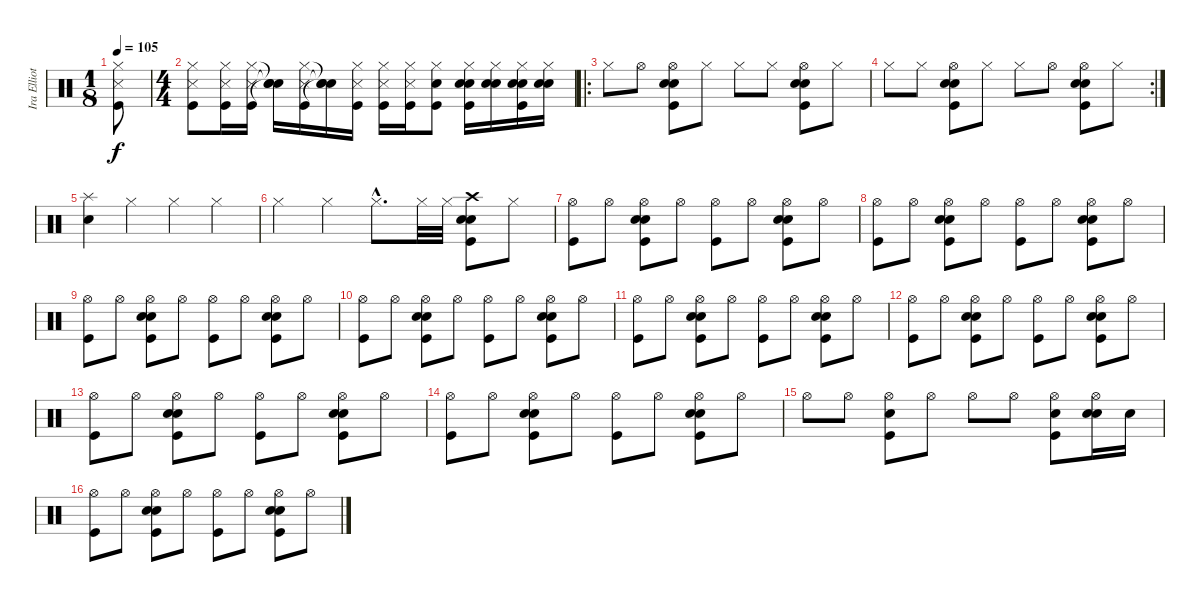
\track ("Ira Elliot" "Ira Elliot") {instrument percussion}
\staff {score}
\articulation defaults
\ts (1 8)
\tempo 105
\clef neutral
\ks c
("Hi-Hat (closed)" "Snare (side stick) 3" "Kick (hit)").8{dy f} |
\ts (4 4)
("Hi-Hat (closed)" "Snare (side stick) 3" "Kick (hit)").8 ("Hi-Hat (closed)" "Snare (side stick) 3" "Kick (hit)").16 ("Hi-Hat (closed)" "Snare (side stick) 3" "Kick (hit)").16 ("Snare (hit)"{t} "Snare (hit)"{t} "Snare (hit)"{t}).16 ("Hi-Hat (closed)" "Snare (side stick) 3" "Kick (hit)").16 ("Snare (hit)"{t} "Snare (hit)"{t} "Snare (hit)"{t}).16 ("Hi-Hat (closed)" "Snare (side stick) 3" "Kick (hit)").16 ("Hi-Hat (closed)" "Snare (side stick) 3" "Kick (hit)").16 ("Hi-Hat (closed)" "Snare (side stick) 3" "Kick (hit)").16 ("Hi-Hat (closed)" "Snare (hit) 2" "Kick (hit)").8 ("Snare (hit) 2" "Electric Snare (hit)" "Hi-Hat (closed)" "Kick (hit)").16 ("Snare (hit) 2" "Electric Snare (hit)" "Hi-Hat (closed)").16 ("Snare (hit) 2" "Electric Snare (hit)" "Hi-Hat (closed)" "Kick (hit)").16 ("Snare (hit) 2" "Electric Snare (hit)" "Hi-Hat (closed)").16 |
\ro "Hi-Hat (closed)".8 "Hi-Hat (open)".8
("Electric Snare (hit)" "Hi-Hat (open)" "Snare (hit) 2" "Kick (hit)").8 "Hi-Hat (closed)".8 "Hi-Hat (closed)".8 "Hi-Hat (closed)".8 ("Electric Snare (hit)" "Hi-Hat (open)" "Snare (hit) 2" "Kick (hit)").8 "Hi-Hat (closed)".8 |
\rc 2 "Hi-Hat (closed)".8 "Hi-Hat (closed)".8
("Electric Snare (hit)" "Snare (hit) 2" "Hi-Hat (open)" "Kick (hit)").8 "Hi-Hat (closed)".8 "Hi-Hat (closed)".8 "Hi-Hat (open)".8 ("Electric Snare (hit)" "Snare (hit) 2" "Hi-Hat (open)" "Kick (hit)").8 "Hi-Hat (closed)".8 |
("Splash (hit)" "Electric Snare (hit)").4 "Hi-Hat (closed)".4 "Hi-Hat (closed)".4 "Hi-Hat (closed)".4 |
"Hi-Hat (closed)".4 "Hi-Hat (closed)".4 "Hi-Hat (closed)"{hac}.8{d} "Hi-Hat (closed)".32 "Hi-Hat (closed)".32 ("Electric Snare (hit)" "Snare (hit) 2" "Crash high (hit)" "Kick (hit)").8 "Hi-Hat (closed)".8 |
("Hi-Hat (open)" "Kick (hit)").8 "Hi-Hat (open)".8 ("Electric Snare (hit)" "Hi-Hat (open)" "Snare (hit) 2" "Kick (hit)").8 "Hi-Hat (open)".8 ("Hi-Hat (open)" "Kick (hit)").8 "Hi-Hat (open)".8 ("Electric Snare (hit)" "Hi-Hat (open)" "Snare (hit) 2" "Kick (hit)").8 "Hi-Hat (open)".8 |
("Hi-Hat (open)" "Kick (hit)").8 "Hi-Hat (open)".8 ("Electric Snare (hit)" "Hi-Hat (open)" "Snare (hit) 2" "Kick (hit)").8 "Hi-Hat (open)".8 ("Hi-Hat (open)" "Kick (hit)").8 "Hi-Hat (open)".8 ("Electric Snare (hit)" "Hi-Hat (open)" "Snare (hit) 2" "Kick (hit)").8 "Hi-Hat (open)".8 |
("Hi-Hat (open)" "Kick (hit)").8 "Hi-Hat (open)".8 ("Electric Snare (hit)" "Hi-Hat (open)" "Snare (hit) 2" "Kick (hit)").8 "Hi-Hat (open)".8 ("Hi-Hat (open)" "Kick (hit)").8 "Hi-Hat (open)".8 ("Electric Snare (hit)" "Hi-Hat (open)" "Snare (hit) 2" "Kick (hit)").8 "Hi-Hat (open)".8 |
("Hi-Hat (open)" "Kick (hit)").8 "Hi-Hat (open)".8 ("Electric Snare (hit)" "Hi-Hat (open)" "Snare (hit) 2" "Kick (hit)").8 "Hi-Hat (open)".8 ("Hi-Hat (open)" "Kick (hit)").8 "Hi-Hat (open)".8 ("Electric Snare (hit)" "Hi-Hat (open)" "Snare (hit) 2" "Kick (hit)").8 "Hi-Hat (open)".8 |
("Hi-Hat (open)" "Kick (hit)").8 "Hi-Hat (open)".8 ("Electric Snare (hit)" "Hi-Hat (open)" "Snare (hit) 2" "Kick (hit)").8 "Hi-Hat (open)".8 ("Hi-Hat (open)" "Kick (hit)").8 "Hi-Hat (open)".8 ("Electric Snare (hit)" "Hi-Hat (open)" "Snare (hit) 2" "Kick (hit)").8 "Hi-Hat (open)".8 |
("Hi-Hat (open)" "Kick (hit)").8 "Hi-Hat (open)".8 ("Electric Snare (hit)" "Hi-Hat (open)" "Snare (hit) 2" "Kick (hit)").8 "Hi-Hat (open)".8 ("Hi-Hat (open)" "Kick (hit)").8 "Hi-Hat (open)".8 ("Electric Snare (hit)" "Hi-Hat (open)" "Snare (hit) 2" "Kick (hit)").8 "Hi-Hat (open)".8 |
("Hi-Hat (open)" "Kick (hit)").8 "Hi-Hat (open)".8 ("Electric Snare (hit)" "Hi-Hat (open)" "Snare (hit) 2" "Kick (hit)").8 "Hi-Hat (open)".8 ("Hi-Hat (open)" "Kick (hit)").8 "Hi-Hat (open)".8 ("Electric Snare (hit)" "Hi-Hat (open)" "Snare (hit) 2" "Kick (hit)").8 "Hi-Hat (open)".8 |
("Hi-Hat (open)" "Kick (hit)").8 "Hi-Hat (open)".8 ("Electric Snare (hit)" "Hi-Hat (open)" "Snare (hit) 2" "Kick (hit)").8 "Hi-Hat (open)".8 ("Hi-Hat (open)" "Kick (hit)").8 "Hi-Hat (open)".8 ("Electric Snare (hit)" "Hi-Hat (open)" "Snare (hit) 2" "Kick (hit)").8 "Hi-Hat (open)".8 |
"Hi-Hat (open)".8 "Hi-Hat (open)".8 ("Electric Snare (hit)" "Kick (hit)" "Hi-Hat (open)").8 "Hi-Hat (open)".8 "Hi-Hat (open)".8 "Hi-Hat (open)".8 ("Electric Snare (hit)" "Kick (hit)" "Hi-Hat (open)").8 ("Electric Snare (hit)" "Hi-Hat (open)" "Snare (hit) 2").16 "Snare (hit) 2".16 |
("Hi-Hat (open)" "Kick (hit)").8 "Hi-Hat (open)".8 ("Electric Snare (hit)" "Hi-Hat (open)" "Snare (hit) 2" "Kick (hit)").8 "Hi-Hat (open)".8 ("Hi-Hat (open)" "Kick (hit)").8 "Hi-Hat (open)".8 ("Electric Snare (hit)" "Hi-Hat (open)" "Snare (hit) 2" "Kick (hit)").8 "Hi-Hat (open)".8
